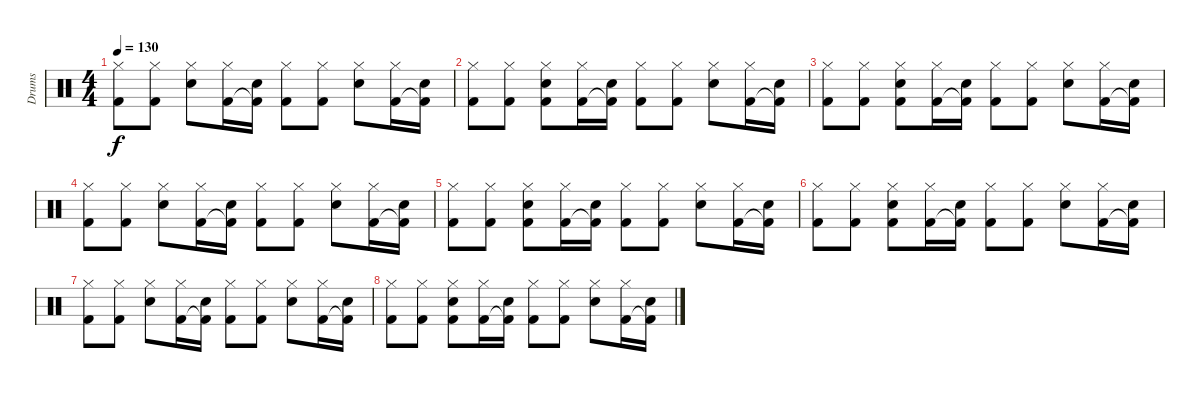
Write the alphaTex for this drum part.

\track ("Drums" "Drums") {instrument percussion}
\staff {score}
\articulation defaults
\ts (4 4)
\tempo 130
\clef neutral
\ks c
("Kick (hit) 2" "Hi-Hat (closed)").8{dy f} ("Kick (hit) 2" "Hi-Hat (closed)").8 ("Electric Snare (hit)" "Hi-Hat (closed)").8 ("Kick (hit) 2" "Hi-Hat (closed)").16 ("Kick (hit) 2"{t} "Electric Snare (hit)").16 ("Kick (hit) 2" "Hi-Hat (closed)").8 ("Kick (hit) 2" "Hi-Hat (closed)").8 ("Electric Snare (hit)" "Hi-Hat (closed)").8 ("Kick (hit) 2" "Hi-Hat (closed)").16 ("Kick (hit) 2"{t} "Electric Snare (hit)").16 |
("Kick (hit) 2" "Hi-Hat (closed)").8 ("Kick (hit) 2" "Hi-Hat (closed)").8 ("Kick (hit) 2" "Electric Snare (hit)" "Hi-Hat (closed)").8 ("Kick (hit) 2" "Hi-Hat (closed)").16 ("Kick (hit) 2"{t} "Electric Snare (hit)").16 ("Kick (hit) 2" "Hi-Hat (closed)").8 ("Kick (hit) 2" "Hi-Hat (closed)").8 ("Electric Snare (hit)" "Hi-Hat (closed)").8 ("Kick (hit) 2" "Hi-Hat (closed)").16 ("Kick (hit) 2"{t} "Electric Snare (hit)").16 |
("Kick (hit) 2" "Hi-Hat (closed)").8 ("Kick (hit) 2" "Hi-Hat (closed)").8 ("Kick (hit) 2" "Electric Snare (hit)" "Hi-Hat (closed)").8 ("Kick (hit) 2" "Hi-Hat (closed)").16 ("Kick (hit) 2"{t} "Electric Snare (hit)").16 ("Kick (hit) 2" "Hi-Hat (closed)").8 ("Kick (hit) 2" "Hi-Hat (closed)").8 ("Electric Snare (hit)" "Hi-Hat (closed)").8 ("Kick (hit) 2" "Hi-Hat (closed)").16 ("Kick (hit) 2"{t} "Electric Snare (hit)").16 |
("Kick (hit) 2" "Hi-Hat (closed)").8 ("Kick (hit) 2" "Hi-Hat (closed)").8 ("Electric Snare (hit)" "Hi-Hat (closed)").8 ("Kick (hit) 2" "Hi-Hat (closed)").16 ("Kick (hit) 2"{t} "Electric Snare (hit)").16 ("Kick (hit) 2" "Hi-Hat (closed)").8 ("Kick (hit) 2" "Hi-Hat (closed)").8 ("Electric Snare (hit)" "Hi-Hat (closed)").8 ("Kick (hit) 2" "Hi-Hat (closed)").16 ("Kick (hit) 2"{t} "Electric Snare (hit)").16 |
("Kick (hit) 2" "Hi-Hat (closed)").8 ("Kick (hit) 2" "Hi-Hat (closed)").8 ("Kick (hit) 2" "Electric Snare (hit)" "Hi-Hat (closed)").8 ("Kick (hit) 2" "Hi-Hat (closed)").16 ("Kick (hit) 2"{t} "Electric Snare (hit)").16 ("Kick (hit) 2" "Hi-Hat (closed)").8 ("Kick (hit) 2" "Hi-Hat (closed)").8 ("Electric Snare (hit)" "Hi-Hat (closed)").8 ("Kick (hit) 2" "Hi-Hat (closed)").16 ("Kick (hit) 2"{t} "Electric Snare (hit)").16 |
("Kick (hit) 2" "Hi-Hat (closed)").8 ("Kick (hit) 2" "Hi-Hat (closed)").8 ("Kick (hit) 2" "Electric Snare (hit)" "Hi-Hat (closed)").8 ("Kick (hit) 2" "Hi-Hat (closed)").16 ("Kick (hit) 2"{t} "Electric Snare (hit)").16 ("Kick (hit) 2" "Hi-Hat (closed)").8 ("Kick (hit) 2" "Hi-Hat (closed)").8 ("Electric Snare (hit)" "Hi-Hat (closed)").8 ("Kick (hit) 2" "Hi-Hat (closed)").16 ("Kick (hit) 2"{t} "Electric Snare (hit)").16 |
("Kick (hit) 2" "Hi-Hat (closed)").8 ("Kick (hit) 2" "Hi-Hat (closed)").8 ("Electric Snare (hit)" "Hi-Hat (closed)").8 ("Kick (hit) 2" "Hi-Hat (closed)").16 ("Kick (hit) 2"{t} "Electric Snare (hit)").16 ("Kick (hit) 2" "Hi-Hat (closed)").8 ("Kick (hit) 2" "Hi-Hat (closed)").8 ("Electric Snare (hit)" "Hi-Hat (closed)").8 ("Kick (hit) 2" "Hi-Hat (closed)").16 ("Kick (hit) 2"{t} "Electric Snare (hit)").16 |
("Kick (hit) 2" "Hi-Hat (closed)").8 ("Kick (hit) 2" "Hi-Hat (closed)").8 ("Kick (hit) 2" "Electric Snare (hit)" "Hi-Hat (closed)").8 ("Kick (hit) 2" "Hi-Hat (closed)").16 ("Kick (hit) 2"{t} "Electric Snare (hit)").16 ("Kick (hit) 2" "Hi-Hat (closed)").8 ("Kick (hit) 2" "Hi-Hat (closed)").8 ("Electric Snare (hit)" "Hi-Hat (closed)").8 ("Kick (hit) 2" "Hi-Hat (closed)").16 ("Kick (hit) 2"{t} "Electric Snare (hit)").16
